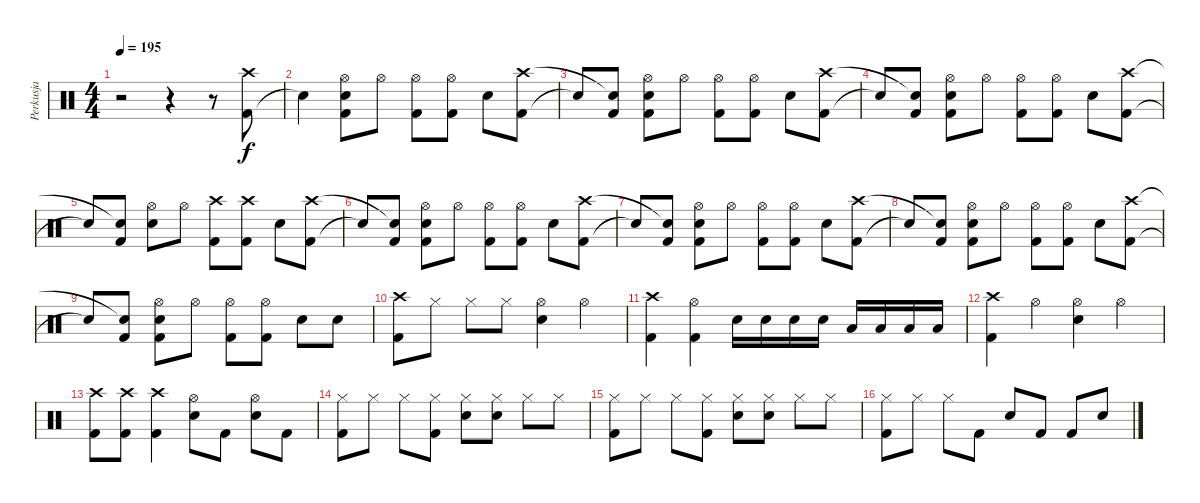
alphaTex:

\track ("Perkusja" "Perkusja") {instrument percussion}
\staff {score}
\articulation defaults
\ts (4 4)
\tempo 195
\clef neutral
\ks c
r.2{dy f} r.4 r.8 ("Kick (hit) 2" "Crash high (hit)").8 |
"Snare (hit)"{t}.4 ("Kick (hit) 2" "Hi-Hat (open)" "Electric Snare (hit)").8 "Hi-Hat (open)".8 ("Kick (hit) 2" "Hi-Hat (open)").8 ("Kick (hit) 2" "Hi-Hat (open)").8 "Electric Snare (hit)".8 ("Kick (hit) 2" "Crash high (hit)").8 |
"Snare (hit)"{t}.8 ("Kick (hit) 2" "Snare (hit)"{t}).8 ("Kick (hit) 2" "Hi-Hat (open)" "Electric Snare (hit)").8 "Hi-Hat (open)".8 ("Kick (hit) 2" "Hi-Hat (open)").8 ("Kick (hit) 2" "Hi-Hat (open)").8 "Electric Snare (hit)".8 ("Kick (hit) 2" "Crash high (hit)").8 |
"Snare (hit)"{t}.8 ("Kick (hit) 2" "Snare (hit)"{t}).8 ("Kick (hit) 2" "Hi-Hat (open)" "Electric Snare (hit)").8 "Hi-Hat (open)".8 ("Kick (hit) 2" "Hi-Hat (open)").8 ("Kick (hit) 2" "Hi-Hat (open)").8 "Electric Snare (hit)".8 ("Kick (hit) 2" "Crash high (hit)").8 |
"Snare (hit)"{t}.8 ("Kick (hit) 2" "Snare (hit)"{t}).8 ("Electric Snare (hit)" "Hi-Hat (open)").8 "Hi-Hat (open)".8 ("Kick (hit) 2" "Crash high (hit)").8 ("Kick (hit) 2" "Crash high (hit)").8 "Electric Snare (hit)".8 ("Kick (hit) 2" "Crash high (hit)").8 |
"Snare (hit)"{t}.8 ("Kick (hit) 2" "Snare (hit)"{t}).8 ("Kick (hit) 2" "Hi-Hat (open)" "Electric Snare (hit)").8 "Hi-Hat (open)".8 ("Kick (hit) 2" "Hi-Hat (open)").8 ("Kick (hit) 2" "Hi-Hat (open)").8 "Electric Snare (hit)".8 ("Kick (hit) 2" "Crash high (hit)").8 |
"Snare (hit)"{t}.8 ("Kick (hit) 2" "Snare (hit)"{t}).8 ("Kick (hit) 2" "Hi-Hat (open)" "Electric Snare (hit)").8 "Hi-Hat (open)".8 ("Kick (hit) 2" "Hi-Hat (open)").8 ("Kick (hit) 2" "Hi-Hat (open)").8 "Electric Snare (hit)".8 ("Kick (hit) 2" "Crash high (hit)").8 |
"Snare (hit)"{t}.8 ("Kick (hit) 2" "Snare (hit)"{t}).8 ("Kick (hit) 2" "Hi-Hat (open)" "Electric Snare (hit)").8 "Hi-Hat (open)".8 ("Kick (hit) 2" "Hi-Hat (open)").8 ("Kick (hit) 2" "Hi-Hat (open)").8 "Electric Snare (hit)".8 ("Kick (hit) 2" "Crash high (hit)").8 |
"Snare (hit)"{t}.8 ("Kick (hit) 2" "Snare (hit)"{t}).8 ("Kick (hit) 2" "Hi-Hat (open)" "Electric Snare (hit)").8 "Hi-Hat (open)".8 ("Kick (hit) 2" "Hi-Hat (open)").8 ("Kick (hit) 2" "Hi-Hat (open)").8 "Electric Snare (hit)".8 "Electric Snare (hit)".8 |
("Kick (hit) 2" "Crash high (hit)").8 "Hi-Hat (closed)".8 "Hi-Hat (closed)".8 "Hi-Hat (closed)".8 ("Electric Snare (hit)" "Hi-Hat (open)").4 "Hi-Hat (open)".4 |
("Kick (hit) 2" "Crash high (hit)").4 ("Kick (hit) 2" "Hi-Hat (open)").4 "Electric Snare (hit)".16 "Electric Snare (hit)".16 "Electric Snare (hit)".16 "Electric Snare (hit)".16 "Low Tom (hit)".16 "Low Tom (hit)".16 "Low Tom (hit)".16 "Low Tom (hit)".16 |
("Kick (hit) 2" "Crash high (hit)").4 "Hi-Hat (open)".4 ("Electric Snare (hit)" "Hi-Hat (open)").4 "Hi-Hat (open)".4 |
("Kick (hit) 2" "Crash high (hit)").8 ("Kick (hit) 2" "Crash high (hit)").8 ("Kick (hit) 2" "Crash high (hit)").4 ("Electric Snare (hit)" "Hi-Hat (open)").8 "Kick (hit) 2".8 ("Electric Snare (hit)" "Hi-Hat (open)").8 "Kick (hit) 2".8 |
("Kick (hit) 2" "Hi-Hat (closed)").8 "Hi-Hat (closed)".8 "Hi-Hat (closed)".8 ("Kick (hit) 2" "Hi-Hat (closed)").8 ("Electric Snare (hit)" "Hi-Hat (closed)").8 ("Electric Snare (hit)" "Hi-Hat (closed)").8 "Hi-Hat (closed)".8 "Hi-Hat (closed)".8 |
("Kick (hit) 2" "Hi-Hat (closed)").8 "Hi-Hat (closed)".8 "Hi-Hat (closed)".8 ("Kick (hit) 2" "Hi-Hat (closed)").8 ("Electric Snare (hit)" "Hi-Hat (closed)").8 ("Electric Snare (hit)" "Hi-Hat (closed)").8 "Hi-Hat (closed)".8 "Hi-Hat (closed)".8 |
("Kick (hit) 2" "Hi-Hat (closed)").8 "Hi-Hat (closed)".8 "Hi-Hat (closed)".8 "Kick (hit) 2".8 "Electric Snare (hit)".8 "Kick (hit) 2".8 "Kick (hit) 2".8 "Electric Snare (hit)".8
